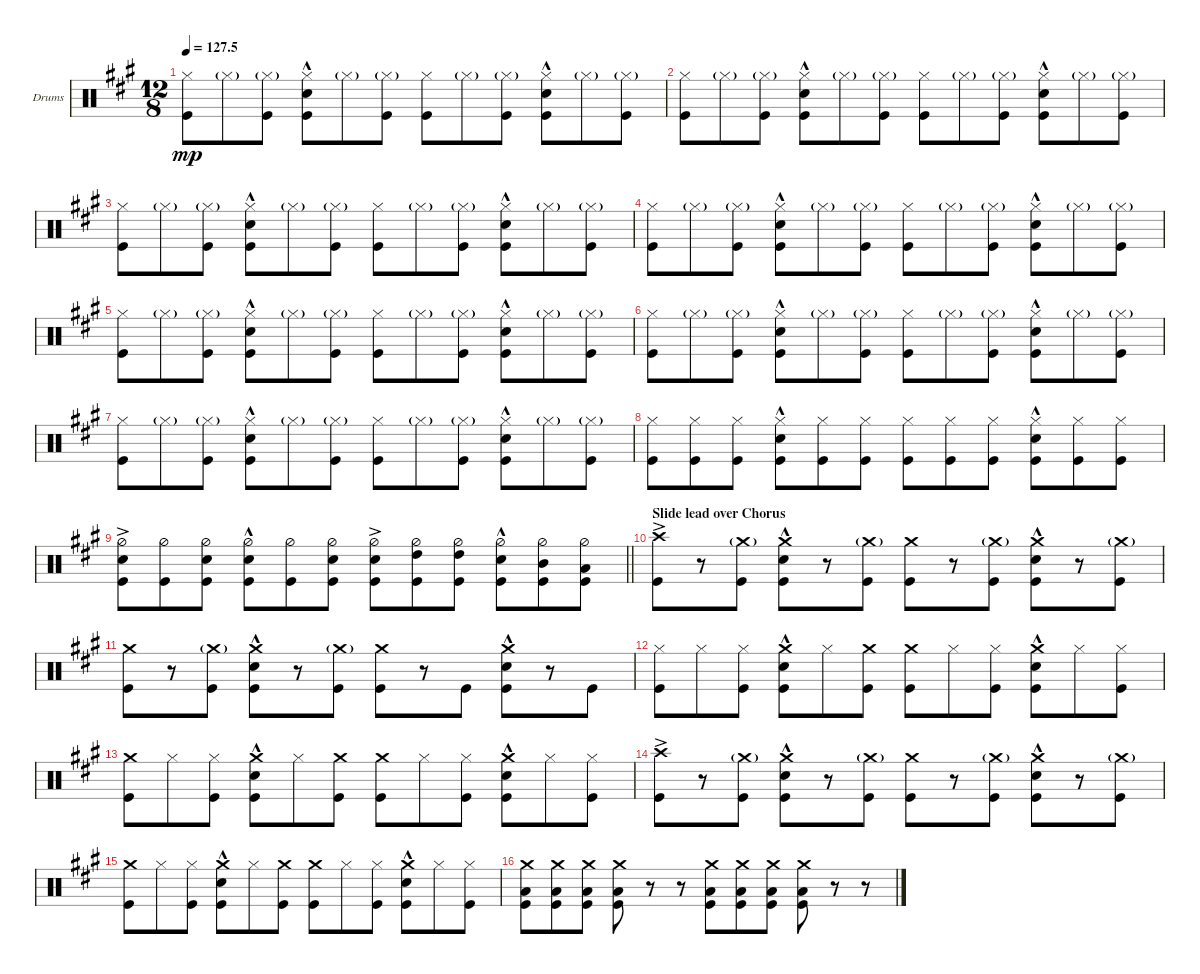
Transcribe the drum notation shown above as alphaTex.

\bracketExtendMode groupsimilarinstruments
\firstSystemTrackNameOrientation horizontal
\otherSystemsTrackNameOrientation horizontal
\track ("Drumkit" "Drums") {instrument percussion}
\staff {score}
\articulation defaults
\ts (12 8)
\tempo
127.5
\accidentals auto
\clef neutral
\ottava regular
\simile none
\scale
0.333333
\ks a
("Hi-Hat (closed)" "Kick (hit)").8{dy mp} "Hi-Hat (closed)"{g}.8 ("Hi-Hat (closed)"{g} "Kick (hit)").8 ("Hi-Hat (closed)" "Kick (hit)" "Snare (hit) 2"{hac}).8 "Hi-Hat (closed)"{g}.8 ("Hi-Hat (closed)"{g} "Kick (hit)").8 ("Hi-Hat (closed)" "Kick (hit)").8 "Hi-Hat (closed)"{g}.8 ("Hi-Hat (closed)"{g} "Kick (hit)").8 ("Hi-Hat (closed)" "Kick (hit)" "Snare (hit) 2"{hac}).8 "Hi-Hat (closed)"{g}.8 ("Hi-Hat (closed)"{g} "Kick (hit)").8 |
\scale
0.333333 ("Hi-Hat (closed)" "Kick (hit)").8 "Hi-Hat (closed)"{g}.8 ("Hi-Hat (closed)"{g} "Kick (hit)").8 ("Hi-Hat (closed)" "Kick (hit)" "Snare (hit) 2"{hac}).8 "Hi-Hat (closed)"{g}.8 ("Hi-Hat (closed)"{g} "Kick (hit)").8 ("Hi-Hat (closed)" "Kick (hit)").8 "Hi-Hat (closed)"{g}.8 ("Hi-Hat (closed)"{g} "Kick (hit)").8 ("Hi-Hat (closed)" "Kick (hit)" "Snare (hit) 2"{hac}).8 "Hi-Hat (closed)"{g}.8 ("Hi-Hat (closed)"{g} "Kick (hit)").8 |
\scale
0.333333 ("Hi-Hat (closed)" "Kick (hit)").8 "Hi-Hat (closed)"{g}.8 ("Hi-Hat (closed)"{g} "Kick (hit)").8 ("Hi-Hat (closed)" "Kick (hit)" "Snare (hit) 2"{hac}).8 "Hi-Hat (closed)"{g}.8 ("Hi-Hat (closed)"{g} "Kick (hit)").8 ("Hi-Hat (closed)" "Kick (hit)").8 "Hi-Hat (closed)"{g}.8 ("Hi-Hat (closed)"{g} "Kick (hit)").8 ("Hi-Hat (closed)" "Kick (hit)" "Snare (hit) 2"{hac}).8 "Hi-Hat (closed)"{g}.8 ("Hi-Hat (closed)"{g} "Kick (hit)").8 |
\scale
0.333333 ("Hi-Hat (closed)" "Kick (hit)").8 "Hi-Hat (closed)"{g}.8 ("Hi-Hat (closed)"{g} "Kick (hit)").8 ("Hi-Hat (closed)" "Kick (hit)" "Snare (hit) 2"{hac}).8 "Hi-Hat (closed)"{g}.8 ("Hi-Hat (closed)"{g} "Kick (hit)").8 ("Hi-Hat (closed)" "Kick (hit)").8 "Hi-Hat (closed)"{g}.8 ("Hi-Hat (closed)"{g} "Kick (hit)").8 ("Hi-Hat (closed)" "Kick (hit)" "Snare (hit) 2"{hac}).8 "Hi-Hat (closed)"{g}.8 ("Hi-Hat (closed)"{g} "Kick (hit)").8 |
\scale
0.333333 ("Hi-Hat (closed)" "Kick (hit)").8 "Hi-Hat (closed)"{g}.8 ("Hi-Hat (closed)"{g} "Kick (hit)").8 ("Hi-Hat (closed)" "Kick (hit)" "Snare (hit) 2"{hac}).8 "Hi-Hat (closed)"{g}.8 ("Hi-Hat (closed)"{g} "Kick (hit)").8 ("Hi-Hat (closed)" "Kick (hit)").8 "Hi-Hat (closed)"{g}.8 ("Hi-Hat (closed)"{g} "Kick (hit)").8 ("Hi-Hat (closed)" "Kick (hit)" "Snare (hit) 2"{hac}).8 "Hi-Hat (closed)"{g}.8 ("Hi-Hat (closed)"{g} "Kick (hit)").8 |
\scale
0.333333 ("Hi-Hat (closed)" "Kick (hit)").8 "Hi-Hat (closed)"{g}.8 ("Hi-Hat (closed)"{g} "Kick (hit)").8 ("Hi-Hat (closed)" "Kick (hit)" "Snare (hit) 2"{hac}).8 "Hi-Hat (closed)"{g}.8 ("Hi-Hat (closed)"{g} "Kick (hit)").8 ("Hi-Hat (closed)" "Kick (hit)").8 "Hi-Hat (closed)"{g}.8 ("Hi-Hat (closed)"{g} "Kick (hit)").8 ("Hi-Hat (closed)" "Kick (hit)" "Snare (hit) 2"{hac}).8 "Hi-Hat (closed)"{g}.8 ("Hi-Hat (closed)"{g} "Kick (hit)").8 |
\scale
0.333333 ("Hi-Hat (closed)" "Kick (hit)").8 "Hi-Hat (closed)"{g}.8 ("Hi-Hat (closed)"{g} "Kick (hit)").8 ("Hi-Hat (closed)" "Kick (hit)" "Snare (hit) 2"{hac}).8 "Hi-Hat (closed)"{g}.8 ("Hi-Hat (closed)"{g} "Kick (hit)").8 ("Hi-Hat (closed)" "Kick (hit)").8 "Hi-Hat (closed)"{g}.8 ("Hi-Hat (closed)"{g} "Kick (hit)").8 ("Hi-Hat (closed)" "Kick (hit)" "Snare (hit) 2"{hac}).8 "Hi-Hat (closed)"{g}.8 ("Hi-Hat (closed)"{g} "Kick (hit)").8 |
\scale
0.333333 ("Hi-Hat (closed)" "Kick (hit)").8 ("Hi-Hat (closed)" "Kick (hit)").8 ("Hi-Hat (closed)" "Kick (hit)").8 ("Hi-Hat (closed)" "Kick (hit)" "Snare (hit) 2"{hac}).8 ("Hi-Hat (closed)" "Kick (hit)").8 ("Hi-Hat (closed)" "Kick (hit)").8 ("Hi-Hat (closed)" "Kick (hit)").8 ("Hi-Hat (closed)" "Kick (hit)").8 ("Hi-Hat (closed)" "Kick (hit)").8 ("Hi-Hat (closed)" "Kick (hit)" "Snare (hit) 2"{hac}).8 ("Hi-Hat (closed)" "Kick (hit)").8 ("Hi-Hat (closed)" "Kick (hit)").8 |
\scale
0.333333
\barLineRight lightlight
("Hi-Hat (half)" "Kick (hit)" "Snare (hit) 2"{ac}).8 ("Hi-Hat (half)" "Kick (hit)").8 ("Hi-Hat (half)" "Kick (hit)" "Snare (hit) 2").8 ("Hi-Hat (half)" "Kick (hit)" "Snare (hit) 2"{hac}).8 ("Hi-Hat (half)" "Kick (hit)").8 ("Hi-Hat (half)" "Kick (hit)" "Snare (hit) 2").8 ("Hi-Hat (half)" "Kick (hit)" "Snare (hit) 2"{ac}).8 ("Hi-Hat (half)" "Kick (hit)" "High Tom (hit)").8 ("Hi-Hat (half)" "Kick (hit)" "High Tom (hit)").8 ("Hi-Hat (half)" "Kick (hit)" "Snare (hit) 2"{hac}).8 ("Hi-Hat (half)" "Kick (hit)" "Mid Tom (hit)").8 ("Hi-Hat (half)" "Kick (hit)" "Low Tom (hit)").8 |
\section ("" "Slide lead over Chorus")
\scale
0.333333 ("Kick (hit)" "Crash high (hit)"{ac}).8 r.8 ("Kick (hit)" "Crash medium (hit)"{g}).8 ("Kick (hit)" "Snare (hit) 2"{hac} "Crash medium (hit)").8 r.8 ("Kick (hit)" "Crash medium (hit)"{g}).8 ("Kick (hit)" "Crash medium (hit)").8 r.8 ("Kick (hit)" "Crash medium (hit)"{g}).8 ("Kick (hit)" "Snare (hit) 2"{hac} "Crash medium (hit)").8 r.8 ("Kick (hit)" "Crash medium (hit)"{g}).8 |
\scale
0.333333 ("Kick (hit)" "Crash medium (hit)").8 r.8 ("Kick (hit)" "Crash medium (hit)"{g}).8 ("Kick (hit)" "Snare (hit) 2"{hac} "Crash medium (hit)").8 r.8 ("Kick (hit)" "Crash medium (hit)"{g}).8 ("Kick (hit)" "Crash medium (hit)").8 r.8 "Kick (hit)".8 ("Kick (hit)" "Snare (hit) 2"{hac} "Crash medium (hit)").8 r.8 "Kick (hit)".8 |
\scale
0.333333 ("Kick (hit)" "Hi-Hat (closed)").8 "Hi-Hat (closed)".8 ("Kick (hit)" "Hi-Hat (closed)").8 ("Kick (hit)" "Snare (hit) 2"{hac} "Crash medium (hit)").8 "Hi-Hat (closed)".8 ("Kick (hit)" "Crash medium (hit)").8 ("Kick (hit)" "Crash medium (hit)").8 "Hi-Hat (closed)".8 ("Kick (hit)" "Hi-Hat (closed)").8 ("Kick (hit)" "Snare (hit) 2"{hac} "Crash medium (hit)").8 "Hi-Hat (closed)".8 ("Kick (hit)" "Hi-Hat (closed)").8 |
\scale
0.333333 ("Kick (hit)" "Crash medium (hit)").8 "Hi-Hat (closed)".8 ("Kick (hit)" "Hi-Hat (closed)").8 ("Kick (hit)" "Snare (hit) 2"{hac} "Crash medium (hit)").8 "Hi-Hat (closed)".8 ("Kick (hit)" "Crash medium (hit)").8 ("Kick (hit)" "Crash medium (hit)").8 "Hi-Hat (closed)".8 ("Kick (hit)" "Hi-Hat (closed)").8 ("Kick (hit)" "Snare (hit) 2"{hac} "Crash medium (hit)").8 "Hi-Hat (closed)".8 ("Kick (hit)" "Hi-Hat (closed)").8 |
\scale
0.333333 ("Kick (hit)" "Crash high (hit)"{ac}).8 r.8 ("Kick (hit)" "Crash medium (hit)"{g}).8 ("Kick (hit)" "Snare (hit) 2"{hac} "Crash medium (hit)").8 r.8 ("Kick (hit)" "Crash medium (hit)"{g}).8 ("Kick (hit)" "Crash medium (hit)").8 r.8 ("Kick (hit)" "Crash medium (hit)"{g}).8 ("Kick (hit)" "Snare (hit) 2"{hac} "Crash medium (hit)").8 r.8 ("Kick (hit)" "Crash medium (hit)"{g}).8 |
\scale
0.333333 ("Kick (hit)" "Crash medium (hit)").8 "Hi-Hat (closed)".8 ("Kick (hit)" "Hi-Hat (closed)").8 ("Kick (hit)" "Snare (hit) 2"{hac} "Crash medium (hit)").8 "Hi-Hat (closed)".8 ("Kick (hit)" "Crash medium (hit)").8 ("Kick (hit)" "Crash medium (hit)").8 "Hi-Hat (closed)".8 ("Kick (hit)" "Hi-Hat (closed)").8 ("Kick (hit)" "Snare (hit) 2"{hac} "Crash medium (hit)").8 "Hi-Hat (closed)".8 ("Kick (hit)" "Hi-Hat (closed)").8 |
\scale
0.333333 ("Kick (hit)" "Crash medium (hit)" "Low Tom (hit)").8 ("Kick (hit)" "Crash medium (hit)" "Low Tom (hit)").8 ("Kick (hit)" "Crash medium (hit)" "Low Tom (hit)").8 ("Kick (hit)" "Crash medium (hit)" "Low Tom (hit)").8 r.8 r.8 ("Kick (hit)" "Crash medium (hit)" "Low Tom (hit)").8 ("Kick (hit)" "Crash medium (hit)" "Low Tom (hit)").8 ("Kick (hit)" "Crash medium (hit)" "Low Tom (hit)").8 ("Kick (hit)" "Crash medium (hit)" "Low Tom (hit)").8 r.8 r.8
